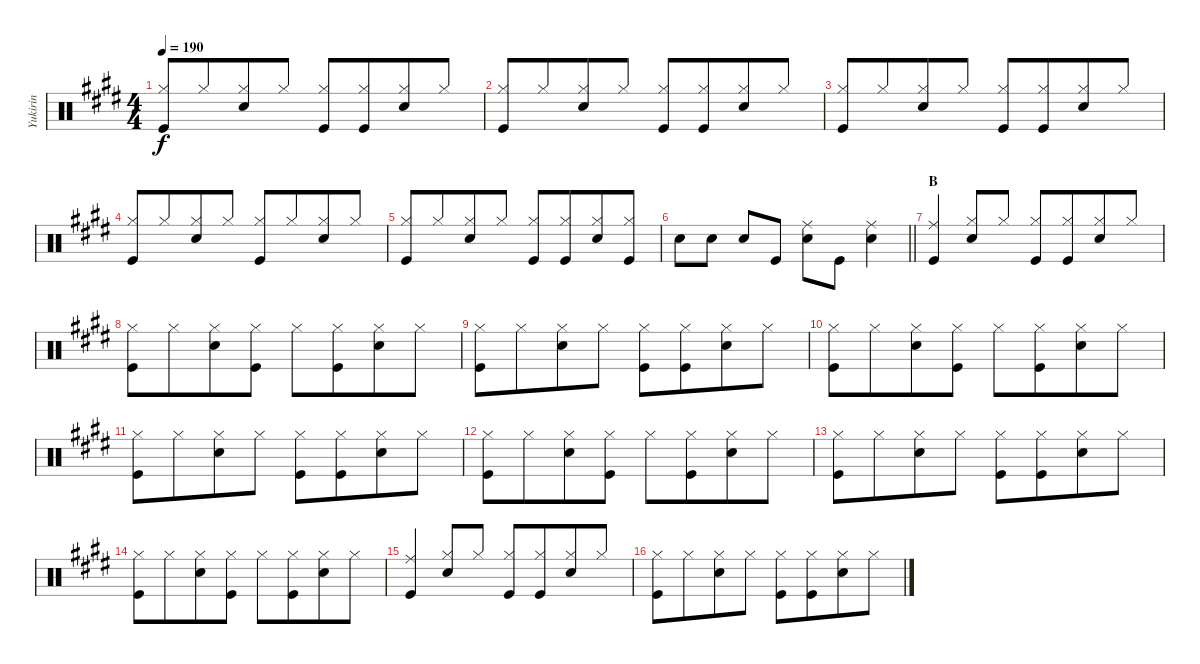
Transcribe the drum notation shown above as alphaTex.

\track ("Yukirin" "Yukirin") {mute instrument percussion}
\staff {score}
\articulation defaults
\ts (4 4)
\tempo 190
\clef neutral
\ks e
("Hi-Hat (closed)" "Kick (hit)").8{dy f beam Up} "Hi-Hat (closed)".8{beam Up beam merge} ("Hi-Hat (closed)" "Snare (hit) 2").8{beam Up} "Hi-Hat (closed)".8{beam Up} ("Hi-Hat (closed)" "Kick (hit)").8{beam Up} ("Hi-Hat (closed)" "Kick (hit)").8{beam Up beam merge} ("Hi-Hat (closed)" "Snare (hit) 2").8{beam Up} "Hi-Hat (closed)".8{beam Up} |
("Hi-Hat (closed)" "Kick (hit)").8{beam Up} "Hi-Hat (closed)".8{beam Up beam merge} ("Hi-Hat (closed)" "Snare (hit) 2").8{beam Up} "Hi-Hat (closed)".8{beam Up} ("Hi-Hat (closed)" "Kick (hit)").8{beam Up} ("Hi-Hat (closed)" "Kick (hit)").8{beam Up beam merge} ("Hi-Hat (closed)" "Snare (hit) 2").8{beam Up} "Hi-Hat (closed)".8{beam Up} |
("Hi-Hat (closed)" "Kick (hit)").8{beam Up} "Hi-Hat (closed)".8{beam Up beam merge} ("Hi-Hat (closed)" "Snare (hit) 2").8{beam Up} "Hi-Hat (closed)".8{beam Up} ("Hi-Hat (closed)" "Kick (hit)").8{beam Up} ("Hi-Hat (closed)" "Kick (hit)").8{beam Up beam merge} ("Hi-Hat (closed)" "Snare (hit) 2").8{beam Up} "Hi-Hat (closed)".8{beam Up} |
("Hi-Hat (closed)" "Kick (hit)").8{beam Up} "Hi-Hat (closed)".8{beam Up beam merge} ("Hi-Hat (closed)" "Snare (hit) 2").8{beam Up} "Hi-Hat (closed)".8{beam Up} ("Hi-Hat (closed)" "Kick (hit)").8{beam Up} "Hi-Hat (closed)".8{beam Up beam merge} ("Hi-Hat (closed)" "Snare (hit) 2").8{beam Up} "Hi-Hat (closed)".8{beam Up} |
("Hi-Hat (closed)" "Kick (hit)").8{beam Up} "Hi-Hat (closed)".8{beam Up beam merge} ("Hi-Hat (closed)" "Snare (hit) 2").8{beam Up} "Hi-Hat (closed)".8{beam Up} ("Hi-Hat (closed)" "Kick (hit)").8{beam Up} ("Hi-Hat (closed)" "Kick (hit)").8{beam Up beam merge} ("Hi-Hat (closed)" "Snare (hit) 2").8{beam Up} ("Hi-Hat (closed)" "Kick (hit)").8{beam Up} |
\barLineRight lightlight "Snare (hit) 2".8 "Snare (hit) 2".8 "Snare (hit) 2".8 "Kick (hit)".8
("Ride (middle)" "Snare (hit) 2").8 "Kick (hit)".8 ("Ride (middle)" "Snare (hit) 2").4 |
\section ("" "B")
("Ride (middle)" "Kick (hit)").4{beam Up} ("Hi-Hat (closed)" "Snare (hit) 2").8{beam Up} "Hi-Hat (closed)".8{beam Up} ("Hi-Hat (closed)" "Kick (hit)").8{beam Up} ("Hi-Hat (closed)" "Kick (hit)").8{beam Up beam merge} ("Hi-Hat (closed)" "Snare (hit) 2").8{beam Up} "Hi-Hat (closed)".8{beam Up} |
("Hi-Hat (closed)" "Kick (hit)").8 "Hi-Hat (closed)".8{beam merge} ("Hi-Hat (closed)" "Snare (hit) 2").8 ("Hi-Hat (closed)" "Kick (hit)").8 "Hi-Hat (closed)".8 ("Hi-Hat (closed)" "Kick (hit)").8{beam merge} ("Hi-Hat (closed)" "Snare (hit) 2").8 "Hi-Hat (closed)".8 |
("Hi-Hat (closed)" "Kick (hit)").8 "Hi-Hat (closed)".8{beam merge} ("Hi-Hat (closed)" "Snare (hit) 2").8 "Hi-Hat (closed)".8 ("Hi-Hat (closed)" "Kick (hit)").8 ("Hi-Hat (closed)" "Kick (hit)").8{beam merge} ("Hi-Hat (closed)" "Snare (hit) 2").8 "Hi-Hat (closed)".8 |
("Hi-Hat (closed)" "Kick (hit)").8 "Hi-Hat (closed)".8{beam merge} ("Hi-Hat (closed)" "Snare (hit) 2").8 ("Hi-Hat (closed)" "Kick (hit)").8 "Hi-Hat (closed)".8 ("Hi-Hat (closed)" "Kick (hit)").8{beam merge} ("Hi-Hat (closed)" "Snare (hit) 2").8 "Hi-Hat (closed)".8 |
("Hi-Hat (closed)" "Kick (hit)").8 "Hi-Hat (closed)".8{beam merge} ("Hi-Hat (closed)" "Snare (hit) 2").8 "Hi-Hat (closed)".8 ("Hi-Hat (closed)" "Kick (hit)").8 ("Hi-Hat (closed)" "Kick (hit)").8{beam merge} ("Hi-Hat (closed)" "Snare (hit) 2").8 "Hi-Hat (closed)".8 |
("Hi-Hat (closed)" "Kick (hit)").8 "Hi-Hat (closed)".8{beam merge} ("Hi-Hat (closed)" "Snare (hit) 2").8 ("Hi-Hat (closed)" "Kick (hit)").8 "Hi-Hat (closed)".8 ("Hi-Hat (closed)" "Kick (hit)").8{beam merge} ("Hi-Hat (closed)" "Snare (hit) 2").8 "Hi-Hat (closed)".8 |
("Hi-Hat (closed)" "Kick (hit)").8 "Hi-Hat (closed)".8{beam merge} ("Hi-Hat (closed)" "Snare (hit) 2").8 "Hi-Hat (closed)".8 ("Hi-Hat (closed)" "Kick (hit)").8 ("Hi-Hat (closed)" "Kick (hit)").8{beam merge} ("Hi-Hat (closed)" "Snare (hit) 2").8 "Hi-Hat (closed)".8 |
("Hi-Hat (closed)" "Kick (hit)").8 "Hi-Hat (closed)".8{beam merge} ("Hi-Hat (closed)" "Snare (hit) 2").8 ("Hi-Hat (closed)" "Kick (hit)").8 "Hi-Hat (closed)".8 ("Hi-Hat (closed)" "Kick (hit)").8{beam merge} ("Hi-Hat (closed)" "Snare (hit) 2").8 "Hi-Hat (closed)".8 |
("Ride (middle)" "Kick (hit)").4{beam Up} ("Hi-Hat (closed)" "Snare (hit) 2").8{beam Up} "Hi-Hat (closed)".8{beam Up} ("Hi-Hat (closed)" "Kick (hit)").8{beam Up} ("Hi-Hat (closed)" "Kick (hit)").8{beam Up beam merge} ("Hi-Hat (closed)" "Snare (hit) 2").8{beam Up} "Hi-Hat (closed)".8{beam Up} |
("Hi-Hat (closed)" "Kick (hit)").8 "Hi-Hat (closed)".8{beam merge} ("Hi-Hat (closed)" "Snare (hit) 2").8 "Hi-Hat (closed)".8 ("Hi-Hat (closed)" "Kick (hit)").8 ("Hi-Hat (closed)" "Kick (hit)").8{beam merge} ("Hi-Hat (closed)" "Snare (hit) 2").8 "Hi-Hat (closed)".8
